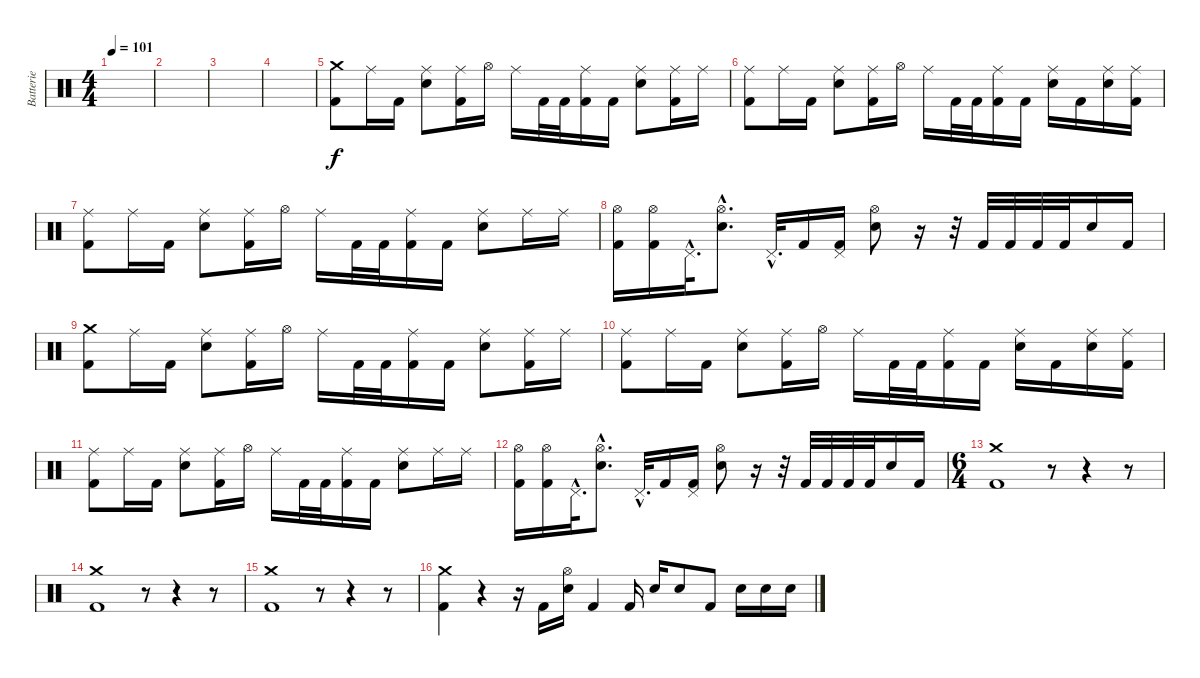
\track ("Batterie" "Batterie") {instrument percussion}
\staff {score}
\articulation defaults
\ts (4 4)
\tempo 101
\clef neutral
\ks c
|
|
|
|
("Crash medium (hit)" "Kick (hit) 2").8 "Ride (middle)".16 "Kick (hit) 2".16 ("Ride (middle)" "Electric Snare (hit)").8 ("Ride (middle)" "Kick (hit) 2").16 "Hi-Hat (open)".16 "Ride (middle)".16 "Kick (hit) 2".32 "Kick (hit) 2".32 ("Ride (middle)" "Kick (hit) 2").16 "Kick (hit) 2".16 ("Ride (middle)" "Electric Snare (hit)").8 ("Ride (middle)" "Kick (hit) 2").16 "Ride (middle)".16 |
("Ride (middle)" "Kick (hit) 2").8 "Ride (middle)".16 "Kick (hit) 2".16 ("Ride (middle)" "Electric Snare (hit)").8 ("Ride (middle)" "Kick (hit) 2").16 "Hi-Hat (open)".16 "Ride (middle)".16 "Kick (hit) 2".32 "Kick (hit) 2".32 ("Ride (middle)" "Kick (hit) 2").16 "Kick (hit) 2".16 ("Ride (middle)" "Electric Snare (hit)").16 "Kick (hit) 2".16 ("Ride (middle)" "Electric Snare (hit)").16 ("Ride (middle)" "Kick (hit) 2").16 |
("Ride (middle)" "Kick (hit) 2").8 "Ride (middle)".16 "Kick (hit) 2".16 ("Ride (middle)" "Electric Snare (hit)").8 ("Ride (middle)" "Kick (hit) 2").16 "Hi-Hat (open)".16 "Ride (middle)".16 "Kick (hit) 2".32 "Kick (hit) 2".32 ("Ride (middle)" "Kick (hit) 2").16 "Kick (hit) 2".16 ("Ride (middle)" "Electric Snare (hit)").8 "Ride (middle)".16 "Ride (middle)".16 |
("Hi-Hat (open)" "Kick (hit) 2").16 ("Hi-Hat (open)" "Kick (hit) 2").16 "Pedal Hi-Hat (hit)"{hac}.32{d} ("Hi-Hat (open)"{hac} "Electric Snare (hit)"{hac}).8{d} "Pedal Hi-Hat (hit)"{hac}.32{d} "Kick (hit) 2".16 ("Pedal Hi-Hat (hit)" "Kick (hit) 2").16 ("Hi-Hat (open)" "Electric Snare (hit)").8 r.16 r.32 "Kick (hit) 2".32 "Kick (hit) 2".32 "Kick (hit) 2".32 "Kick (hit) 2".32 "Electric Snare (hit)".16 "Kick (hit) 2".16 |
("Crash medium (hit)" "Kick (hit) 2").8 "Ride (middle)".16 "Kick (hit) 2".16 ("Ride (middle)" "Electric Snare (hit)").8 ("Ride (middle)" "Kick (hit) 2").16 "Hi-Hat (open)".16 "Ride (middle)".16 "Kick (hit) 2".32 "Kick (hit) 2".32 ("Ride (middle)" "Kick (hit) 2").16 "Kick (hit) 2".16 ("Ride (middle)" "Electric Snare (hit)").8 ("Ride (middle)" "Kick (hit) 2").16 "Ride (middle)".16 |
("Ride (middle)" "Kick (hit) 2").8 "Ride (middle)".16 "Kick (hit) 2".16 ("Ride (middle)" "Electric Snare (hit)").8 ("Ride (middle)" "Kick (hit) 2").16 "Hi-Hat (open)".16 "Ride (middle)".16 "Kick (hit) 2".32 "Kick (hit) 2".32 ("Ride (middle)" "Kick (hit) 2").16 "Kick (hit) 2".16 ("Ride (middle)" "Electric Snare (hit)").16 "Kick (hit) 2".16 ("Ride (middle)" "Electric Snare (hit)").16 ("Ride (middle)" "Kick (hit) 2").16 |
("Ride (middle)" "Kick (hit) 2").8 "Ride (middle)".16 "Kick (hit) 2".16 ("Ride (middle)" "Electric Snare (hit)").8 ("Ride (middle)" "Kick (hit) 2").16 "Hi-Hat (open)".16 "Ride (middle)".16 "Kick (hit) 2".32 "Kick (hit) 2".32 ("Ride (middle)" "Kick (hit) 2").16 "Kick (hit) 2".16 ("Ride (middle)" "Electric Snare (hit)").8 "Ride (middle)".16 "Ride (middle)".16 |
("Hi-Hat (open)" "Kick (hit) 2").16 ("Hi-Hat (open)" "Kick (hit) 2").16 "Pedal Hi-Hat (hit)"{hac}.32{d} ("Hi-Hat (open)"{hac} "Electric Snare (hit)"{hac}).8{d} "Pedal Hi-Hat (hit)"{hac}.32{d} "Kick (hit) 2".16 ("Pedal Hi-Hat (hit)" "Kick (hit) 2").16 ("Hi-Hat (open)" "Electric Snare (hit)").8 r.16 r.32 "Kick (hit) 2".32 "Kick (hit) 2".32 "Kick (hit) 2".32 "Kick (hit) 2".32 "Electric Snare (hit)".16 "Kick (hit) 2".16 |
\ts (6 4)
("Crash medium (hit)" "Kick (hit) 2").1 r.8 r.4 r.8 |
("Crash medium (hit)" "Kick (hit) 2").1 r.8 r.4 r.8 |
("Crash medium (hit)" "Kick (hit) 2").1 r.8 r.4 r.8 |
("Crash medium (hit)" "Kick (hit) 2").4 r.4 r.16 "Kick (hit) 2".16 ("Hi-Hat (open)" "Electric Snare (hit)").16 "Kick (hit) 2".4 "Kick (hit) 2".16 "Electric Snare (hit)".16 "Electric Snare (hit)".8 "Kick (hit) 2".8 "Electric Snare (hit)".16 "Electric Snare (hit)".16 "Electric Snare (hit)".16
